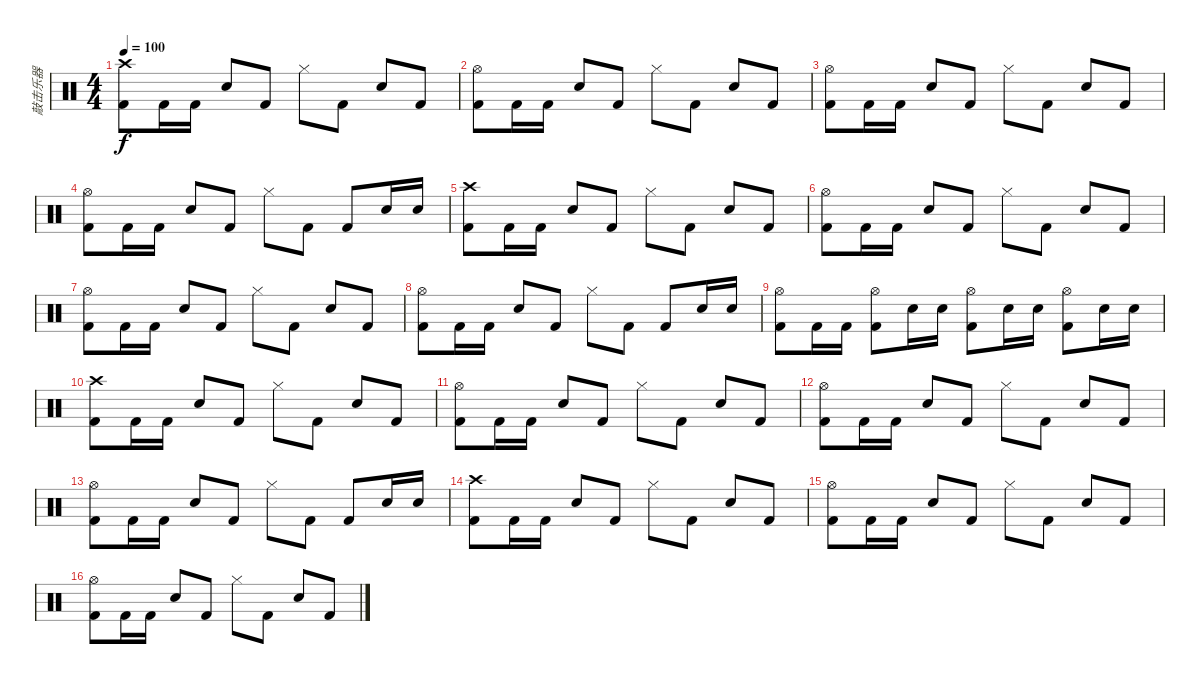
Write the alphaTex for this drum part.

\track ("敲击乐器" "敲击乐器") {instrument percussion}
\staff {score}
\articulation defaults
\ts (4 4)
\tempo 100
\clef neutral
\ks c
("Kick (hit) 2" "Crash high (hit)").8{dy f} "Kick (hit) 2".16 "Kick (hit) 2".16 "Metronome (bell)".8 "Kick (hit) 2".8 "Hi-Hat (closed)".8 "Kick (hit) 2".8 "Metronome (bell)".8 "Kick (hit) 2".8 |
("Kick (hit) 2" "Hi-Hat (open)").8 "Kick (hit) 2".16 "Kick (hit) 2".16 "Metronome (bell)".8 "Kick (hit) 2".8 "Hi-Hat (closed)".8 "Kick (hit) 2".8 "Metronome (bell)".8 "Kick (hit) 2".8 |
("Kick (hit) 2" "Hi-Hat (open)").8 "Kick (hit) 2".16 "Kick (hit) 2".16 "Metronome (bell)".8 "Kick (hit) 2".8 "Hi-Hat (closed)".8 "Kick (hit) 2".8 "Metronome (bell)".8 "Kick (hit) 2".8 |
("Kick (hit) 2" "Hi-Hat (open)").8 "Kick (hit) 2".16 "Kick (hit) 2".16 "Metronome (bell)".8 "Kick (hit) 2".8 "Hi-Hat (closed)".8 "Kick (hit) 2".8 "Kick (hit) 2".8 "Metronome (bell)".16 "Metronome (bell)".16 |
("Kick (hit) 2" "Crash high (hit)").8 "Kick (hit) 2".16 "Kick (hit) 2".16 "Metronome (bell)".8 "Kick (hit) 2".8 "Hi-Hat (closed)".8 "Kick (hit) 2".8 "Metronome (bell)".8 "Kick (hit) 2".8 |
("Kick (hit) 2" "Hi-Hat (open)").8 "Kick (hit) 2".16 "Kick (hit) 2".16 "Metronome (bell)".8 "Kick (hit) 2".8 "Hi-Hat (closed)".8 "Kick (hit) 2".8 "Metronome (bell)".8 "Kick (hit) 2".8 |
("Kick (hit) 2" "Hi-Hat (open)").8 "Kick (hit) 2".16 "Kick (hit) 2".16 "Metronome (bell)".8 "Kick (hit) 2".8 "Hi-Hat (closed)".8 "Kick (hit) 2".8 "Metronome (bell)".8 "Kick (hit) 2".8 |
("Kick (hit) 2" "Hi-Hat (open)").8 "Kick (hit) 2".16 "Kick (hit) 2".16 "Metronome (bell)".8 "Kick (hit) 2".8 "Hi-Hat (closed)".8 "Kick (hit) 2".8 "Kick (hit) 2".8 "Metronome (bell)".16 "Metronome (bell)".16 |
("Kick (hit) 2" "Hi-Hat (open)").8 "Kick (hit) 2".16 "Kick (hit) 2".16 ("Kick (hit) 2" "Hi-Hat (open)").8 "Metronome (bell)".16 "Metronome (bell)".16 ("Kick (hit) 2" "Hi-Hat (open)").8 "Metronome (bell)".16 "Metronome (bell)".16 ("Kick (hit) 2" "Hi-Hat (open)").8 "Metronome (bell)".16 "Metronome (bell)".16 |
("Kick (hit) 2" "Crash high (hit)").8 "Kick (hit) 2".16 "Kick (hit) 2".16 "Metronome (bell)".8 "Kick (hit) 2".8 "Hi-Hat (closed)".8 "Kick (hit) 2".8 "Metronome (bell)".8 "Kick (hit) 2".8 |
("Kick (hit) 2" "Hi-Hat (open)").8 "Kick (hit) 2".16 "Kick (hit) 2".16 "Metronome (bell)".8 "Kick (hit) 2".8 "Hi-Hat (closed)".8 "Kick (hit) 2".8 "Metronome (bell)".8 "Kick (hit) 2".8 |
("Kick (hit) 2" "Hi-Hat (open)").8 "Kick (hit) 2".16 "Kick (hit) 2".16 "Metronome (bell)".8 "Kick (hit) 2".8 "Hi-Hat (closed)".8 "Kick (hit) 2".8 "Metronome (bell)".8 "Kick (hit) 2".8 |
("Kick (hit) 2" "Hi-Hat (open)").8 "Kick (hit) 2".16 "Kick (hit) 2".16 "Metronome (bell)".8 "Kick (hit) 2".8 "Hi-Hat (closed)".8 "Kick (hit) 2".8 "Kick (hit) 2".8 "Metronome (bell)".16 "Metronome (bell)".16 |
("Kick (hit) 2" "Crash high (hit)").8 "Kick (hit) 2".16 "Kick (hit) 2".16 "Metronome (bell)".8 "Kick (hit) 2".8 "Hi-Hat (closed)".8 "Kick (hit) 2".8 "Metronome (bell)".8 "Kick (hit) 2".8 |
("Kick (hit) 2" "Hi-Hat (open)").8 "Kick (hit) 2".16 "Kick (hit) 2".16 "Metronome (bell)".8 "Kick (hit) 2".8 "Hi-Hat (closed)".8 "Kick (hit) 2".8 "Metronome (bell)".8 "Kick (hit) 2".8 |
("Kick (hit) 2" "Hi-Hat (open)").8 "Kick (hit) 2".16 "Kick (hit) 2".16 "Metronome (bell)".8 "Kick (hit) 2".8 "Hi-Hat (closed)".8 "Kick (hit) 2".8 "Metronome (bell)".8 "Kick (hit) 2".8
